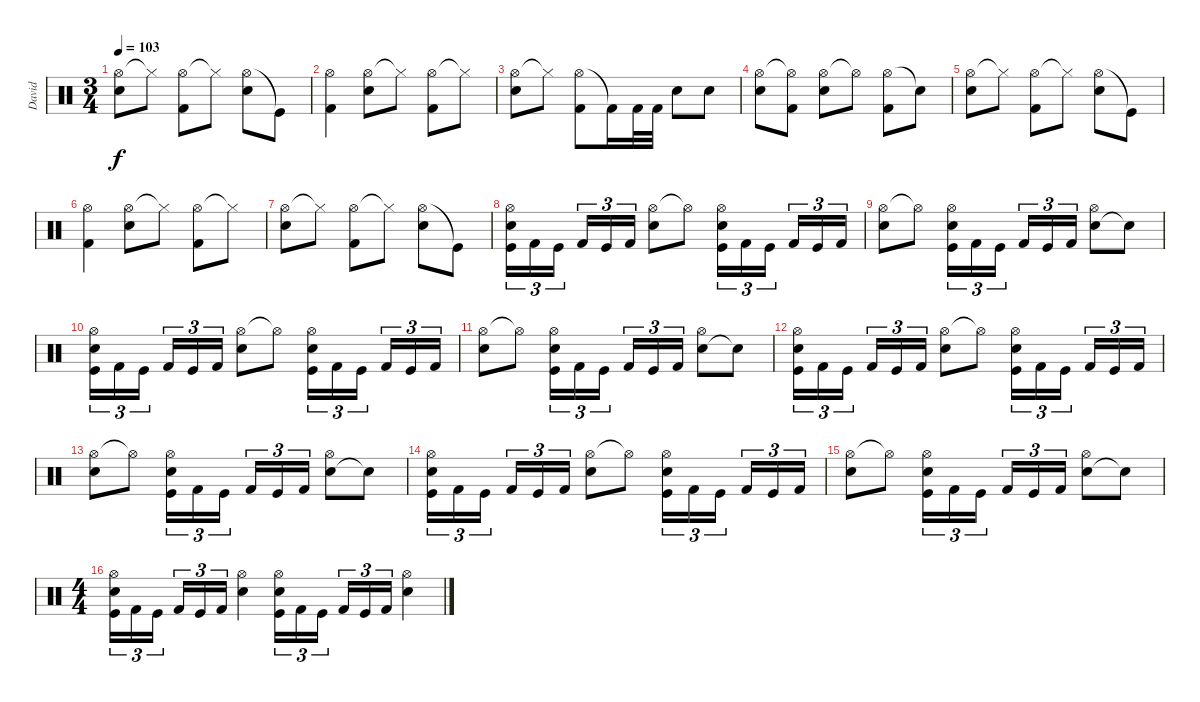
\track ("David" "David") {instrument percussion}
\staff {score}
\articulation defaults
\ts (3 4)
\tempo 103
\clef neutral
\ks c
("Hi-Hat (open)" "Snare (hit) 2").8{dy f} "Hi-Hat (closed)"{t}.8 ("Hi-Hat (open)" "Kick (hit) 2").8 "Hi-Hat (closed)"{t}.8 ("Hi-Hat (open)" "Snare (hit) 2").8 "Kick (hit)"{t}.8 |
("Hi-Hat (open)" "Kick (hit) 2").4 ("Hi-Hat (open)" "Snare (hit) 2").8 "Hi-Hat (closed)"{t}.8 ("Hi-Hat (open)" "Kick (hit) 2").8 "Hi-Hat (closed)"{t}.8 |
("Hi-Hat (open)" "Snare (hit) 2").8 "Hi-Hat (closed)"{t}.8 ("Hi-Hat (open)" "Kick (hit) 2").8 "Kick (hit) 2"{t}.16 "Kick (hit) 2".32 "Kick (hit) 2".32 "Snare (hit) 2".8 "Snare (hit) 2".8 |
("Hi-Hat (open)" "Snare (hit) 2").8 ("Hi-Hat (open)"{t} "Kick (hit) 2").8 ("Hi-Hat (open)" "Snare (hit) 2").8 "Hi-Hat (open)"{t}.8 ("Hi-Hat (open)" "Kick (hit) 2").8 "Snare (hit)"{t}.8 |
("Hi-Hat (open)" "Snare (hit) 2").8 "Hi-Hat (closed)"{t}.8 ("Hi-Hat (open)" "Kick (hit) 2").8 "Hi-Hat (closed)"{t}.8 ("Hi-Hat (open)" "Snare (hit) 2").8 "Kick (hit)"{t}.8 |
("Hi-Hat (open)" "Kick (hit) 2").4 ("Hi-Hat (open)" "Snare (hit) 2").8 "Hi-Hat (closed)"{t}.8 ("Hi-Hat (open)" "Kick (hit) 2").8 "Hi-Hat (closed)"{t}.8 |
("Hi-Hat (open)" "Snare (hit) 2").8 "Hi-Hat (closed)"{t}.8 ("Hi-Hat (open)" "Kick (hit) 2").8 "Hi-Hat (closed)"{t}.8 ("Hi-Hat (open)" "Snare (hit) 2").8 "Kick (hit)"{t}.8 |
("Hi-Hat (open)" "Snare (hit) 2" "Kick (hit)").16{tu (3 2)} "Kick (hit) 2".16{tu (3 2)} "Kick (hit)".16{tu (3 2)} "Kick (hit) 2".16{tu (3 2)} "Kick (hit)".16{tu (3 2)} "Kick (hit) 2".16{tu (3 2)} ("Hi-Hat (open)" "Snare (hit) 2").8 "Hi-Hat (open)"{t}.8 ("Hi-Hat (open)" "Snare (hit) 2" "Kick (hit)").16{tu (3 2)} "Kick (hit) 2".16{tu (3 2)} "Kick (hit)".16{tu (3 2)} "Kick (hit) 2".16{tu (3 2)} "Kick (hit)".16{tu (3 2)} "Kick (hit) 2".16{tu (3 2)} |
("Hi-Hat (open)" "Snare (hit) 2").8 "Hi-Hat (open)"{t}.8 ("Hi-Hat (open)" "Snare (hit) 2" "Kick (hit)").16{tu (3 2)} "Kick (hit) 2".16{tu (3 2)} "Kick (hit)".16{tu (3 2)} "Kick (hit) 2".16{tu (3 2)} "Kick (hit)".16{tu (3 2)} "Kick (hit) 2".16{tu (3 2)} ("Snare (hit) 2" "Hi-Hat (open)").8 "Snare (hit)"{t}.8 |
("Hi-Hat (open)" "Snare (hit) 2" "Kick (hit)").16{tu (3 2)} "Kick (hit) 2".16{tu (3 2)} "Kick (hit)".16{tu (3 2)} "Kick (hit) 2".16{tu (3 2)} "Kick (hit)".16{tu (3 2)} "Kick (hit) 2".16{tu (3 2)} ("Hi-Hat (open)" "Snare (hit) 2").8 "Hi-Hat (open)"{t}.8 ("Hi-Hat (open)" "Snare (hit) 2" "Kick (hit)").16{tu (3 2)} "Kick (hit) 2".16{tu (3 2)} "Kick (hit)".16{tu (3 2)} "Kick (hit) 2".16{tu (3 2)} "Kick (hit)".16{tu (3 2)} "Kick (hit) 2".16{tu (3 2)} |
("Hi-Hat (open)" "Snare (hit) 2").8 "Hi-Hat (open)"{t}.8 ("Hi-Hat (open)" "Snare (hit) 2" "Kick (hit)").16{tu (3 2)} "Kick (hit) 2".16{tu (3 2)} "Kick (hit)".16{tu (3 2)} "Kick (hit) 2".16{tu (3 2)} "Kick (hit)".16{tu (3 2)} "Kick (hit) 2".16{tu (3 2)} ("Snare (hit) 2" "Hi-Hat (open)").8 "Snare (hit)"{t}.8 |
("Hi-Hat (open)" "Snare (hit) 2" "Kick (hit)").16{tu (3 2)} "Kick (hit) 2".16{tu (3 2)} "Kick (hit)".16{tu (3 2)} "Kick (hit) 2".16{tu (3 2)} "Kick (hit)".16{tu (3 2)} "Kick (hit) 2".16{tu (3 2)} ("Hi-Hat (open)" "Snare (hit) 2").8 "Hi-Hat (open)"{t}.8 ("Hi-Hat (open)" "Snare (hit) 2" "Kick (hit)").16{tu (3 2)} "Kick (hit) 2".16{tu (3 2)} "Kick (hit)".16{tu (3 2)} "Kick (hit) 2".16{tu (3 2)} "Kick (hit)".16{tu (3 2)} "Kick (hit) 2".16{tu (3 2)} |
("Hi-Hat (open)" "Snare (hit) 2").8 "Hi-Hat (open)"{t}.8 ("Hi-Hat (open)" "Snare (hit) 2" "Kick (hit)").16{tu (3 2)} "Kick (hit) 2".16{tu (3 2)} "Kick (hit)".16{tu (3 2)} "Kick (hit) 2".16{tu (3 2)} "Kick (hit)".16{tu (3 2)} "Kick (hit) 2".16{tu (3 2)} ("Snare (hit) 2" "Hi-Hat (open)").8 "Snare (hit)"{t}.8 |
("Hi-Hat (open)" "Snare (hit) 2" "Kick (hit)").16{tu (3 2)} "Kick (hit) 2".16{tu (3 2)} "Kick (hit)".16{tu (3 2)} "Kick (hit) 2".16{tu (3 2)} "Kick (hit)".16{tu (3 2)} "Kick (hit) 2".16{tu (3 2)} ("Hi-Hat (open)" "Snare (hit) 2").8 "Hi-Hat (open)"{t}.8 ("Hi-Hat (open)" "Snare (hit) 2" "Kick (hit)").16{tu (3 2)} "Kick (hit) 2".16{tu (3 2)} "Kick (hit)".16{tu (3 2)} "Kick (hit) 2".16{tu (3 2)} "Kick (hit)".16{tu (3 2)} "Kick (hit) 2".16{tu (3 2)} |
("Hi-Hat (open)" "Snare (hit) 2").8 "Hi-Hat (open)"{t}.8 ("Hi-Hat (open)" "Snare (hit) 2" "Kick (hit)").16{tu (3 2)} "Kick (hit) 2".16{tu (3 2)} "Kick (hit)".16{tu (3 2)} "Kick (hit) 2".16{tu (3 2)} "Kick (hit)".16{tu (3 2)} "Kick (hit) 2".16{tu (3 2)} ("Snare (hit) 2" "Hi-Hat (open)").8 "Snare (hit)"{t}.8 |
\ts (4 4)
("Hi-Hat (open)" "Kick (hit)" "Snare (hit) 2").16{tu (3 2)} "Kick (hit) 2".16{tu (3 2)} "Kick (hit)".16{tu (3 2)} "Kick (hit) 2".16{tu (3 2)} "Kick (hit)".16{tu (3 2)} "Kick (hit) 2".16{tu (3 2)} ("Hi-Hat (open)" "Snare (hit) 2").4 ("Hi-Hat (open)" "Kick (hit)" "Snare (hit) 2").16{tu (3 2)} "Kick (hit) 2".16{tu (3 2)} "Kick (hit)".16{tu (3 2)} "Kick (hit) 2".16{tu (3 2)} "Kick (hit)".16{tu (3 2)} "Kick (hit) 2".16{tu (3 2)} ("Hi-Hat (open)" "Snare (hit) 2").4
